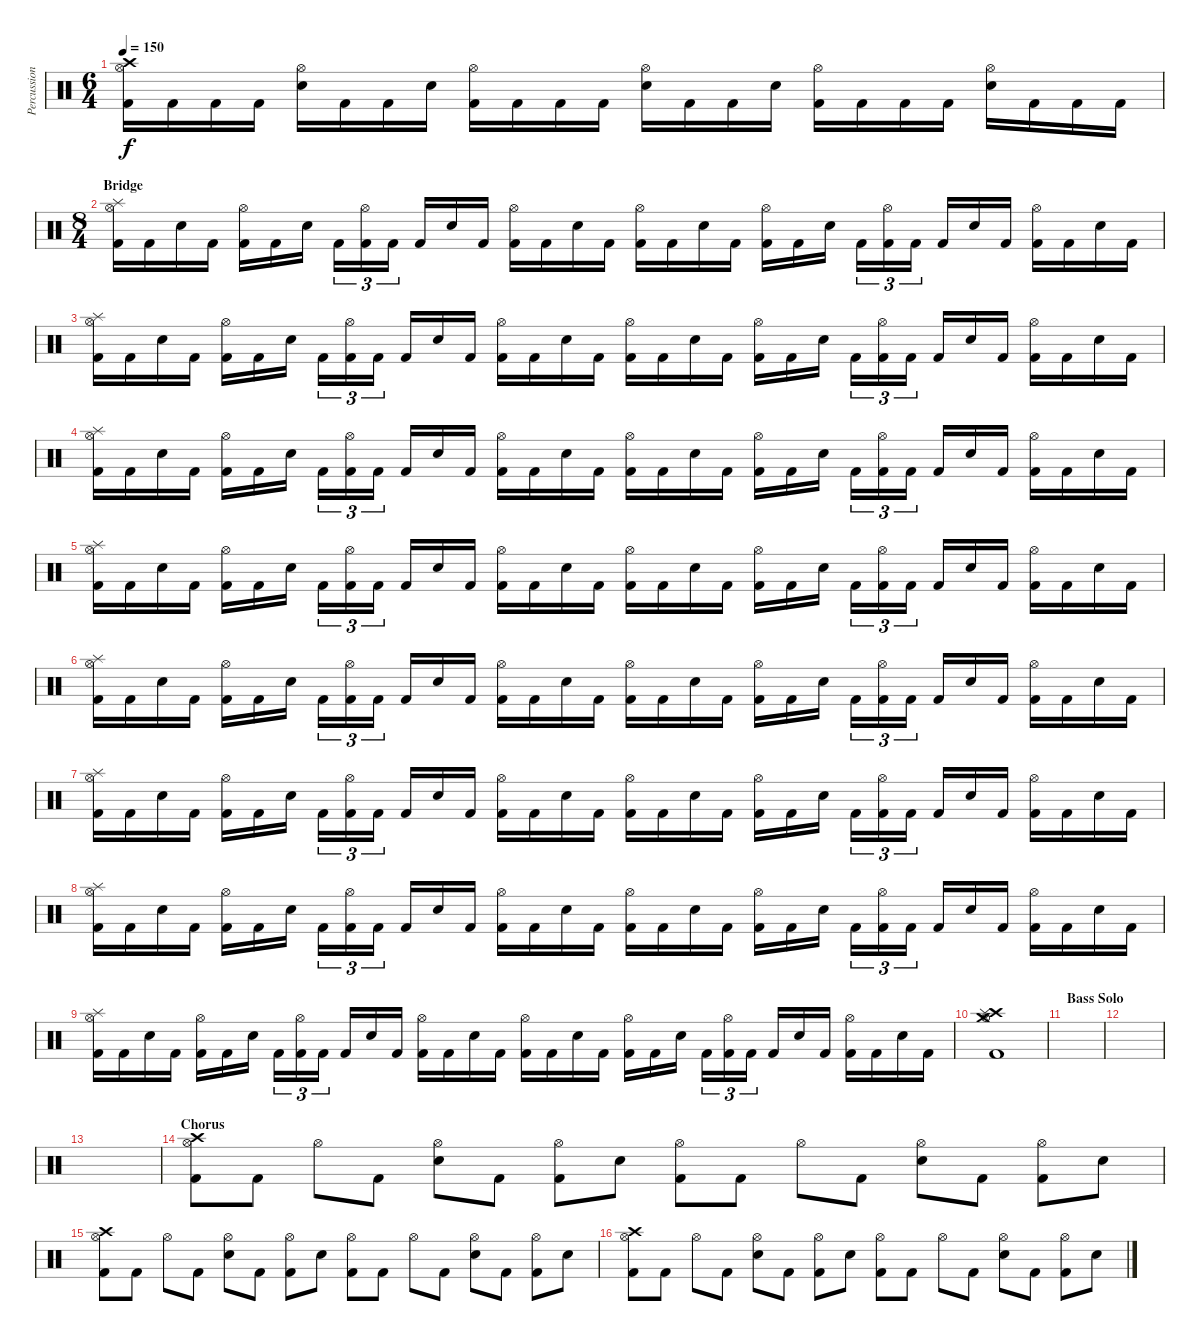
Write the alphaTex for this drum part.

\track ("Percussions" "Percussion") {instrument percussion}
\staff {score}
\articulation defaults
\ts (6 4)
\tempo 150
\clef neutral
\ks c
("Crash high (hit)" "Hi-Hat (open)" "Kick (hit) 2").16{dy f} "Kick (hit) 2".16 "Kick (hit) 2".16 "Kick (hit) 2".16 ("Hi-Hat (open)" "Electric Snare (hit)").16 "Kick (hit) 2".16 "Kick (hit) 2".16 "Electric Snare (hit)".16 ("Hi-Hat (open)" "Kick (hit) 2").16 "Kick (hit) 2".16 "Kick (hit) 2".16 "Kick (hit) 2".16 ("Hi-Hat (open)" "Electric Snare (hit)").16 "Kick (hit) 2".16 "Kick (hit) 2".16 "Electric Snare (hit)".16 ("Hi-Hat (open)" "Kick (hit) 2").16 "Kick (hit) 2".16 "Kick (hit) 2".16 "Kick (hit) 2".16 ("Hi-Hat (open)" "Electric Snare (hit)").16 "Kick (hit) 2".16 "Kick (hit) 2".16 "Kick (hit) 2".16 |
\ts (8 4)
\section ("" "Bridge")
("Splash (hit)" "Hi-Hat (open)" "Kick (hit) 2").16 "Kick (hit) 2".16 "Electric Snare (hit)".16 "Kick (hit) 2".16 ("Hi-Hat (open)" "Kick (hit) 2").16 "Kick (hit) 2".16 "Electric Snare (hit)".16 "Kick (hit) 2".16{tu (3 2)} ("Hi-Hat (open)" "Kick (hit) 2").16{tu (3 2)} "Kick (hit) 2".16{tu (3 2)} "Kick (hit) 2".16 "Electric Snare (hit)".16 "Kick (hit) 2".16 ("Hi-Hat (open)" "Kick (hit) 2").16 "Kick (hit) 2".16 "Electric Snare (hit)".16 "Kick (hit) 2".16 ("Hi-Hat (open)" "Kick (hit) 2").16 "Kick (hit) 2".16 "Electric Snare (hit)".16 "Kick (hit) 2".16 ("Hi-Hat (open)" "Kick (hit) 2").16 "Kick (hit) 2".16 "Electric Snare (hit)".16 "Kick (hit) 2".16{tu (3 2)} ("Hi-Hat (open)" "Kick (hit) 2").16{tu (3 2)} "Kick (hit) 2".16{tu (3 2)} "Kick (hit) 2".16 "Electric Snare (hit)".16 "Kick (hit) 2".16 ("Hi-Hat (open)" "Kick (hit) 2").16 "Kick (hit) 2".16 "Electric Snare (hit)".16 "Kick (hit) 2".16 |
("Splash (hit)" "Hi-Hat (open)" "Kick (hit) 2").16 "Kick (hit) 2".16 "Electric Snare (hit)".16 "Kick (hit) 2".16 ("Hi-Hat (open)" "Kick (hit) 2").16 "Kick (hit) 2".16 "Electric Snare (hit)".16 "Kick (hit) 2".16{tu (3 2)} ("Hi-Hat (open)" "Kick (hit) 2").16{tu (3 2)} "Kick (hit) 2".16{tu (3 2)} "Kick (hit) 2".16 "Electric Snare (hit)".16 "Kick (hit) 2".16 ("Hi-Hat (open)" "Kick (hit) 2").16 "Kick (hit) 2".16 "Electric Snare (hit)".16 "Kick (hit) 2".16 ("Hi-Hat (open)" "Kick (hit) 2").16 "Kick (hit) 2".16 "Electric Snare (hit)".16 "Kick (hit) 2".16 ("Hi-Hat (open)" "Kick (hit) 2").16 "Kick (hit) 2".16 "Electric Snare (hit)".16 "Kick (hit) 2".16{tu (3 2)} ("Hi-Hat (open)" "Kick (hit) 2").16{tu (3 2)} "Kick (hit) 2".16{tu (3 2)} "Kick (hit) 2".16 "Electric Snare (hit)".16 "Kick (hit) 2".16 ("Hi-Hat (open)" "Kick (hit) 2").16 "Kick (hit) 2".16 "Electric Snare (hit)".16 "Kick (hit) 2".16 |
("Splash (hit)" "Hi-Hat (open)" "Kick (hit) 2").16 "Kick (hit) 2".16 "Electric Snare (hit)".16 "Kick (hit) 2".16 ("Hi-Hat (open)" "Kick (hit) 2").16 "Kick (hit) 2".16 "Electric Snare (hit)".16 "Kick (hit) 2".16{tu (3 2)} ("Hi-Hat (open)" "Kick (hit) 2").16{tu (3 2)} "Kick (hit) 2".16{tu (3 2)} "Kick (hit) 2".16 "Electric Snare (hit)".16 "Kick (hit) 2".16 ("Hi-Hat (open)" "Kick (hit) 2").16 "Kick (hit) 2".16 "Electric Snare (hit)".16 "Kick (hit) 2".16 ("Hi-Hat (open)" "Kick (hit) 2").16 "Kick (hit) 2".16 "Electric Snare (hit)".16 "Kick (hit) 2".16 ("Hi-Hat (open)" "Kick (hit) 2").16 "Kick (hit) 2".16 "Electric Snare (hit)".16 "Kick (hit) 2".16{tu (3 2)} ("Hi-Hat (open)" "Kick (hit) 2").16{tu (3 2)} "Kick (hit) 2".16{tu (3 2)} "Kick (hit) 2".16 "Electric Snare (hit)".16 "Kick (hit) 2".16 ("Hi-Hat (open)" "Kick (hit) 2").16 "Kick (hit) 2".16 "Electric Snare (hit)".16 "Kick (hit) 2".16 |
("Splash (hit)" "Hi-Hat (open)" "Kick (hit) 2").16 "Kick (hit) 2".16 "Electric Snare (hit)".16 "Kick (hit) 2".16 ("Hi-Hat (open)" "Kick (hit) 2").16 "Kick (hit) 2".16 "Electric Snare (hit)".16 "Kick (hit) 2".16{tu (3 2)} ("Hi-Hat (open)" "Kick (hit) 2").16{tu (3 2)} "Kick (hit) 2".16{tu (3 2)} "Kick (hit) 2".16 "Electric Snare (hit)".16 "Kick (hit) 2".16 ("Hi-Hat (open)" "Kick (hit) 2").16 "Kick (hit) 2".16 "Electric Snare (hit)".16 "Kick (hit) 2".16 ("Hi-Hat (open)" "Kick (hit) 2").16 "Kick (hit) 2".16 "Electric Snare (hit)".16 "Kick (hit) 2".16 ("Hi-Hat (open)" "Kick (hit) 2").16 "Kick (hit) 2".16 "Electric Snare (hit)".16 "Kick (hit) 2".16{tu (3 2)} ("Hi-Hat (open)" "Kick (hit) 2").16{tu (3 2)} "Kick (hit) 2".16{tu (3 2)} "Kick (hit) 2".16 "Electric Snare (hit)".16 "Kick (hit) 2".16 ("Hi-Hat (open)" "Kick (hit) 2").16 "Kick (hit) 2".16 "Electric Snare (hit)".16 "Kick (hit) 2".16 |
("Splash (hit)" "Hi-Hat (open)" "Kick (hit) 2").16 "Kick (hit) 2".16 "Electric Snare (hit)".16 "Kick (hit) 2".16 ("Hi-Hat (open)" "Kick (hit) 2").16 "Kick (hit) 2".16 "Electric Snare (hit)".16 "Kick (hit) 2".16{tu (3 2)} ("Hi-Hat (open)" "Kick (hit) 2").16{tu (3 2)} "Kick (hit) 2".16{tu (3 2)} "Kick (hit) 2".16 "Electric Snare (hit)".16 "Kick (hit) 2".16 ("Hi-Hat (open)" "Kick (hit) 2").16 "Kick (hit) 2".16 "Electric Snare (hit)".16 "Kick (hit) 2".16 ("Hi-Hat (open)" "Kick (hit) 2").16 "Kick (hit) 2".16 "Electric Snare (hit)".16 "Kick (hit) 2".16 ("Hi-Hat (open)" "Kick (hit) 2").16 "Kick (hit) 2".16 "Electric Snare (hit)".16 "Kick (hit) 2".16{tu (3 2)} ("Hi-Hat (open)" "Kick (hit) 2").16{tu (3 2)} "Kick (hit) 2".16{tu (3 2)} "Kick (hit) 2".16 "Electric Snare (hit)".16 "Kick (hit) 2".16 ("Hi-Hat (open)" "Kick (hit) 2").16 "Kick (hit) 2".16 "Electric Snare (hit)".16 "Kick (hit) 2".16 |
("Splash (hit)" "Hi-Hat (open)" "Kick (hit) 2").16 "Kick (hit) 2".16 "Electric Snare (hit)".16 "Kick (hit) 2".16 ("Hi-Hat (open)" "Kick (hit) 2").16 "Kick (hit) 2".16 "Electric Snare (hit)".16 "Kick (hit) 2".16{tu (3 2)} ("Hi-Hat (open)" "Kick (hit) 2").16{tu (3 2)} "Kick (hit) 2".16{tu (3 2)} "Kick (hit) 2".16 "Electric Snare (hit)".16 "Kick (hit) 2".16 ("Hi-Hat (open)" "Kick (hit) 2").16 "Kick (hit) 2".16 "Electric Snare (hit)".16 "Kick (hit) 2".16 ("Hi-Hat (open)" "Kick (hit) 2").16 "Kick (hit) 2".16 "Electric Snare (hit)".16 "Kick (hit) 2".16 ("Hi-Hat (open)" "Kick (hit) 2").16 "Kick (hit) 2".16 "Electric Snare (hit)".16 "Kick (hit) 2".16{tu (3 2)} ("Hi-Hat (open)" "Kick (hit) 2").16{tu (3 2)} "Kick (hit) 2".16{tu (3 2)} "Kick (hit) 2".16 "Electric Snare (hit)".16 "Kick (hit) 2".16 ("Hi-Hat (open)" "Kick (hit) 2").16 "Kick (hit) 2".16 "Electric Snare (hit)".16 "Kick (hit) 2".16 |
("Splash (hit)" "Hi-Hat (open)" "Kick (hit) 2").16 "Kick (hit) 2".16 "Electric Snare (hit)".16 "Kick (hit) 2".16 ("Hi-Hat (open)" "Kick (hit) 2").16 "Kick (hit) 2".16 "Electric Snare (hit)".16 "Kick (hit) 2".16{tu (3 2)} ("Hi-Hat (open)" "Kick (hit) 2").16{tu (3 2)} "Kick (hit) 2".16{tu (3 2)} "Kick (hit) 2".16 "Electric Snare (hit)".16 "Kick (hit) 2".16 ("Hi-Hat (open)" "Kick (hit) 2").16 "Kick (hit) 2".16 "Electric Snare (hit)".16 "Kick (hit) 2".16 ("Hi-Hat (open)" "Kick (hit) 2").16 "Kick (hit) 2".16 "Electric Snare (hit)".16 "Kick (hit) 2".16 ("Hi-Hat (open)" "Kick (hit) 2").16 "Kick (hit) 2".16 "Electric Snare (hit)".16 "Kick (hit) 2".16{tu (3 2)} ("Hi-Hat (open)" "Kick (hit) 2").16{tu (3 2)} "Kick (hit) 2".16{tu (3 2)} "Kick (hit) 2".16 "Electric Snare (hit)".16 "Kick (hit) 2".16 ("Hi-Hat (open)" "Kick (hit) 2").16 "Kick (hit) 2".16 "Electric Snare (hit)".16 "Kick (hit) 2".16 |
("Splash (hit)" "Hi-Hat (open)" "Kick (hit) 2").16 "Kick (hit) 2".16 "Electric Snare (hit)".16 "Kick (hit) 2".16 ("Hi-Hat (open)" "Kick (hit) 2").16 "Kick (hit) 2".16 "Electric Snare (hit)".16 "Kick (hit) 2".16{tu (3 2)} ("Hi-Hat (open)" "Kick (hit) 2").16{tu (3 2)} "Kick (hit) 2".16{tu (3 2)} "Kick (hit) 2".16 "Electric Snare (hit)".16 "Kick (hit) 2".16 ("Hi-Hat (open)" "Kick (hit) 2").16 "Kick (hit) 2".16 "Electric Snare (hit)".16 "Kick (hit) 2".16 ("Hi-Hat (open)" "Kick (hit) 2").16 "Kick (hit) 2".16 "Electric Snare (hit)".16 "Kick (hit) 2".16 ("Hi-Hat (open)" "Kick (hit) 2").16 "Kick (hit) 2".16 "Electric Snare (hit)".16 "Kick (hit) 2".16{tu (3 2)} ("Hi-Hat (open)" "Kick (hit) 2").16{tu (3 2)} "Kick (hit) 2".16{tu (3 2)} "Kick (hit) 2".16 "Electric Snare (hit)".16 "Kick (hit) 2".16 ("Hi-Hat (open)" "Kick (hit) 2").16 "Kick (hit) 2".16 "Electric Snare (hit)".16 "Kick (hit) 2".16 |
("Crash high (hit)" "Splash (hit)" "Crash medium (hit)" "Hi-Hat (open)" "Kick (hit) 2").1 |
\section ("" "Bass Solo")
|
|
|
\section ("" "Chorus")
("Crash high (hit)" "Hi-Hat (open)" "Kick (hit) 2").8 "Kick (hit) 2".8 "Hi-Hat (open)".8 "Kick (hit) 2".8 ("Hi-Hat (open)" "Electric Snare (hit)").8 "Kick (hit) 2".8 ("Hi-Hat (open)" "Kick (hit) 2").8 "Electric Snare (hit)".8 ("Hi-Hat (open)" "Kick (hit) 2").8 "Kick (hit) 2".8 "Hi-Hat (open)".8 "Kick (hit) 2".8 ("Hi-Hat (open)" "Electric Snare (hit)").8 "Kick (hit) 2".8 ("Hi-Hat (open)" "Kick (hit) 2").8 "Electric Snare (hit)".8 |
("Crash high (hit)" "Hi-Hat (open)" "Kick (hit) 2").8 "Kick (hit) 2".8 "Hi-Hat (open)".8 "Kick (hit) 2".8 ("Hi-Hat (open)" "Electric Snare (hit)").8 "Kick (hit) 2".8 ("Hi-Hat (open)" "Kick (hit) 2").8 "Electric Snare (hit)".8 ("Hi-Hat (open)" "Kick (hit) 2").8 "Kick (hit) 2".8 "Hi-Hat (open)".8 "Kick (hit) 2".8 ("Hi-Hat (open)" "Electric Snare (hit)").8 "Kick (hit) 2".8 ("Hi-Hat (open)" "Kick (hit) 2").8 "Electric Snare (hit)".8 |
("Crash high (hit)" "Hi-Hat (open)" "Kick (hit) 2").8 "Kick (hit) 2".8 "Hi-Hat (open)".8 "Kick (hit) 2".8 ("Hi-Hat (open)" "Electric Snare (hit)").8 "Kick (hit) 2".8 ("Hi-Hat (open)" "Kick (hit) 2").8 "Electric Snare (hit)".8 ("Hi-Hat (open)" "Kick (hit) 2").8 "Kick (hit) 2".8 "Hi-Hat (open)".8 "Kick (hit) 2".8 ("Hi-Hat (open)" "Electric Snare (hit)").8 "Kick (hit) 2".8 ("Hi-Hat (open)" "Kick (hit) 2").8 "Electric Snare (hit)".8
